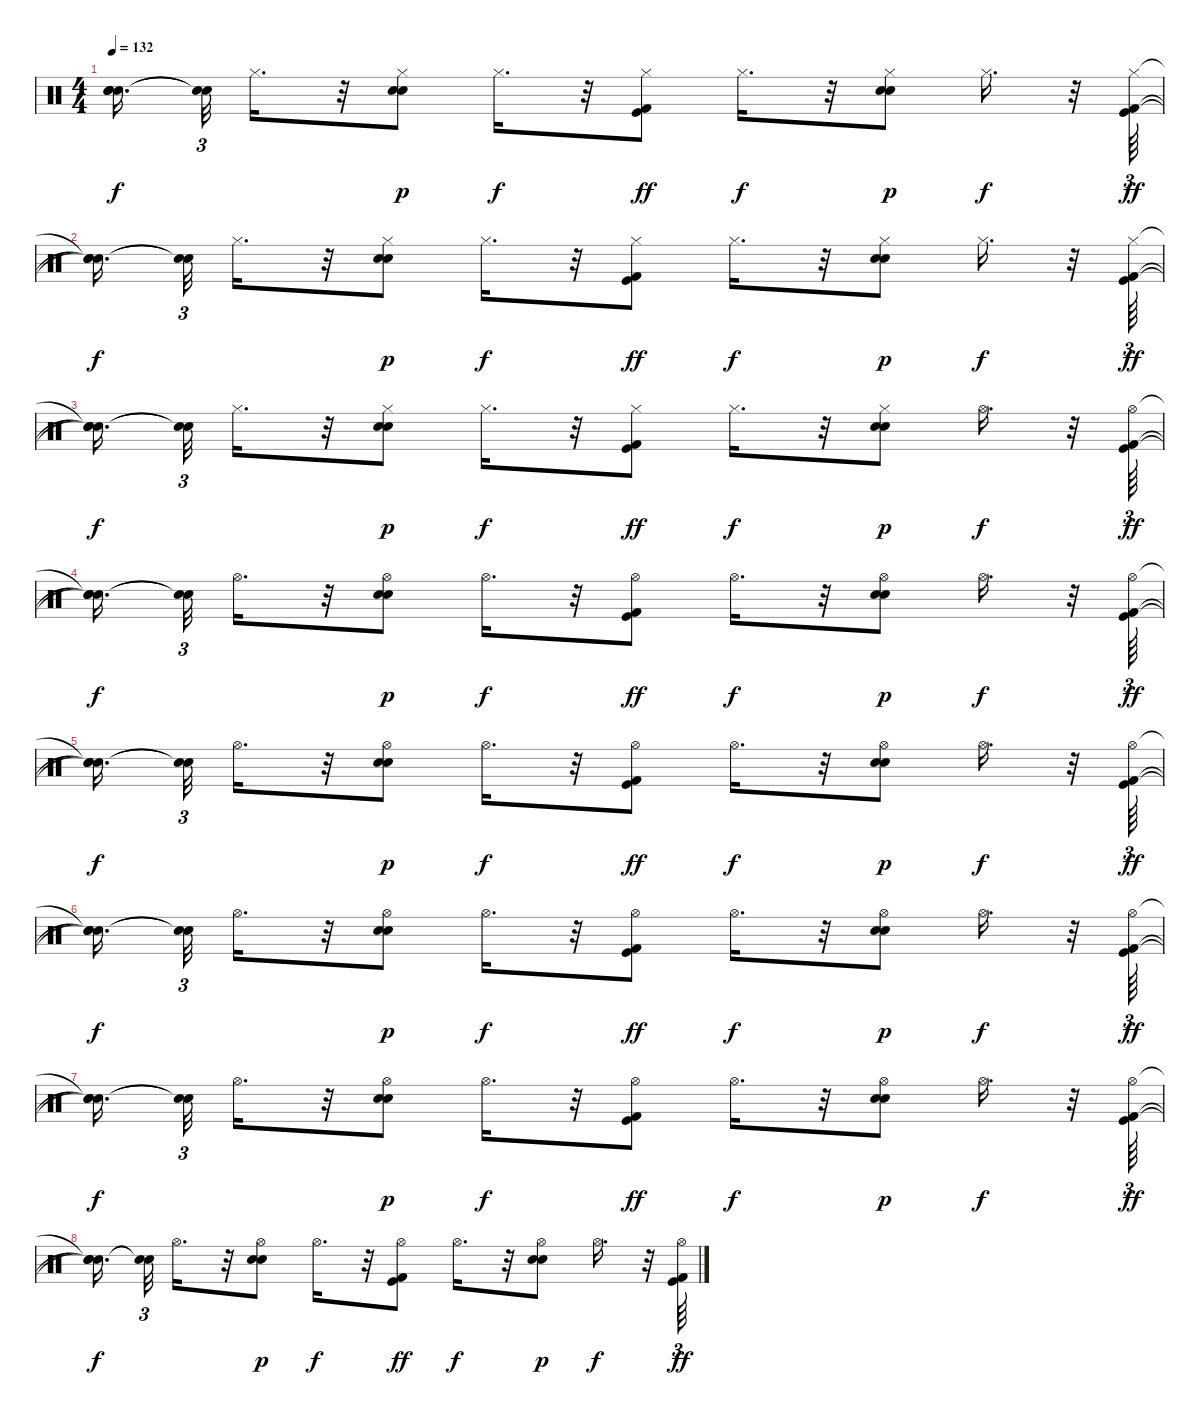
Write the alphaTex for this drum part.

\track "" {instrument percussion}
\staff {score}
\articulation defaults
\ts (4 4)
\tempo 132
\clef neutral
\ks c
("Snare (hit)"{t} "Snare (hit)"{t} "Snare (hit)"{t}).16{d dy f beam splitsecondary} ("Snare (hit)"{t} "Snare (hit)"{t}).32{tu (3 2)} "Hi-Hat (closed)".16{d} r.32 ("Electric Snare (hit)" "Snare (hit) 2" "Hi-Hat (closed)").8{dy p} "Hi-Hat (closed)".16{d dy f} r.32 ("Kick (hit) 2" "Kick (hit)" "Hi-Hat (closed)").8{dy ff} "Hi-Hat (closed)".16{d dy f} r.32 ("Electric Snare (hit)" "Snare (hit) 2" "Hi-Hat (closed)").8{dy p} "Hi-Hat (closed)".16{d dy f} r.32 ("Kick (hit) 2" "Kick (hit)" "Hi-Hat (closed)").64{tu (3 2) dy ff} |
("Snare (hit)"{t} "Snare (hit)"{t} "Snare (hit)"{t}).16{d dy f beam splitsecondary} ("Snare (hit)"{t} "Snare (hit)"{t}).32{tu (3 2)} "Hi-Hat (closed)".16{d} r.32 ("Electric Snare (hit)" "Snare (hit) 2" "Hi-Hat (closed)").8{dy p} "Hi-Hat (closed)".16{d dy f} r.32 ("Kick (hit) 2" "Kick (hit)" "Hi-Hat (closed)").8{dy ff} "Hi-Hat (closed)".16{d dy f} r.32 ("Electric Snare (hit)" "Snare (hit) 2" "Hi-Hat (closed)").8{dy p} "Hi-Hat (closed)".16{d dy f} r.32 ("Kick (hit) 2" "Kick (hit)" "Hi-Hat (closed)").64{tu (3 2) dy ff} |
("Snare (hit)"{t} "Snare (hit)"{t} "Snare (hit)"{t}).16{d dy f beam splitsecondary} ("Snare (hit)"{t} "Snare (hit)"{t}).32{tu (3 2)} "Hi-Hat (closed)".16{d} r.32 ("Electric Snare (hit)" "Snare (hit) 2" "Hi-Hat (closed)").8{dy p} "Hi-Hat (closed)".16{d dy f} r.32 ("Kick (hit) 2" "Kick (hit)" "Hi-Hat (closed)").8{dy ff} "Hi-Hat (closed)".16{d dy f} r.32 ("Electric Snare (hit)" "Snare (hit) 2" "Hi-Hat (closed)").8{dy p} "Hi-Hat (open)".16{d dy f} r.32 ("Kick (hit) 2" "Kick (hit)" "Hi-Hat (open)").64{tu (3 2) dy ff} |
("Snare (hit)"{t} "Snare (hit)"{t} "Snare (hit)"{t}).16{d dy f beam splitsecondary} ("Snare (hit)"{t} "Snare (hit)"{t}).32{tu (3 2)} "Hi-Hat (open)".16{d} r.32 ("Electric Snare (hit)" "Snare (hit) 2" "Hi-Hat (open)").8{dy p} "Hi-Hat (open)".16{d dy f} r.32 ("Kick (hit) 2" "Kick (hit)" "Hi-Hat (open)").8{dy ff} "Hi-Hat (open)".16{d dy f} r.32 ("Electric Snare (hit)" "Snare (hit) 2" "Hi-Hat (open)").8{dy p} "Hi-Hat (open)".16{d dy f} r.32 ("Kick (hit) 2" "Kick (hit)" "Hi-Hat (open)").64{tu (3 2) dy ff} |
("Snare (hit)"{t} "Snare (hit)"{t} "Snare (hit)"{t}).16{d dy f beam splitsecondary} ("Snare (hit)"{t} "Snare (hit)"{t}).32{tu (3 2)} "Hi-Hat (open)".16{d} r.32 ("Electric Snare (hit)" "Snare (hit) 2" "Hi-Hat (open)").8{dy p} "Hi-Hat (open)".16{d dy f} r.32 ("Kick (hit) 2" "Kick (hit)" "Hi-Hat (open)").8{dy ff} "Hi-Hat (open)".16{d dy f} r.32 ("Electric Snare (hit)" "Snare (hit) 2" "Hi-Hat (open)").8{dy p} "Hi-Hat (open)".16{d dy f} r.32 ("Kick (hit) 2" "Kick (hit)" "Hi-Hat (open)").64{tu (3 2) dy ff} |
("Snare (hit)"{t} "Snare (hit)"{t} "Snare (hit)"{t}).16{d dy f beam splitsecondary} ("Snare (hit)"{t} "Snare (hit)"{t}).32{tu (3 2)} "Hi-Hat (open)".16{d} r.32 ("Electric Snare (hit)" "Snare (hit) 2" "Hi-Hat (open)").8{dy p} "Hi-Hat (open)".16{d dy f} r.32 ("Kick (hit) 2" "Kick (hit)" "Hi-Hat (open)").8{dy ff} "Hi-Hat (open)".16{d dy f} r.32 ("Electric Snare (hit)" "Snare (hit) 2" "Hi-Hat (open)").8{dy p} "Hi-Hat (open)".16{d dy f} r.32 ("Kick (hit) 2" "Kick (hit)" "Hi-Hat (open)").64{tu (3 2) dy ff} |
("Snare (hit)"{t} "Snare (hit)"{t} "Snare (hit)"{t}).16{d dy f beam splitsecondary} ("Snare (hit)"{t} "Snare (hit)"{t}).32{tu (3 2)} "Hi-Hat (open)".16{d} r.32 ("Electric Snare (hit)" "Snare (hit) 2" "Hi-Hat (open)").8{dy p} "Hi-Hat (open)".16{d dy f} r.32 ("Kick (hit) 2" "Kick (hit)" "Hi-Hat (open)").8{dy ff} "Hi-Hat (open)".16{d dy f} r.32 ("Electric Snare (hit)" "Snare (hit) 2" "Hi-Hat (open)").8{dy p} "Hi-Hat (open)".16{d dy f} r.32 ("Kick (hit) 2" "Kick (hit)" "Hi-Hat (open)").64{tu (3 2) dy ff} |
("Snare (hit)"{t} "Snare (hit)"{t} "Snare (hit)"{t}).16{d dy f beam splitsecondary} ("Snare (hit)"{t} "Snare (hit)"{t}).32{tu (3 2)} "Hi-Hat (open)".16{d} r.32 ("Electric Snare (hit)" "Snare (hit) 2" "Hi-Hat (open)").8{dy p} "Hi-Hat (open)".16{d dy f} r.32 ("Kick (hit) 2" "Kick (hit)" "Hi-Hat (open)").8{dy ff} "Hi-Hat (open)".16{d dy f} r.32 ("Electric Snare (hit)" "Snare (hit) 2" "Hi-Hat (open)").8{dy p} "Hi-Hat (open)".16{d dy f} r.32 ("Kick (hit) 2" "Kick (hit)" "Hi-Hat (open)").64{tu (3 2) dy ff}
